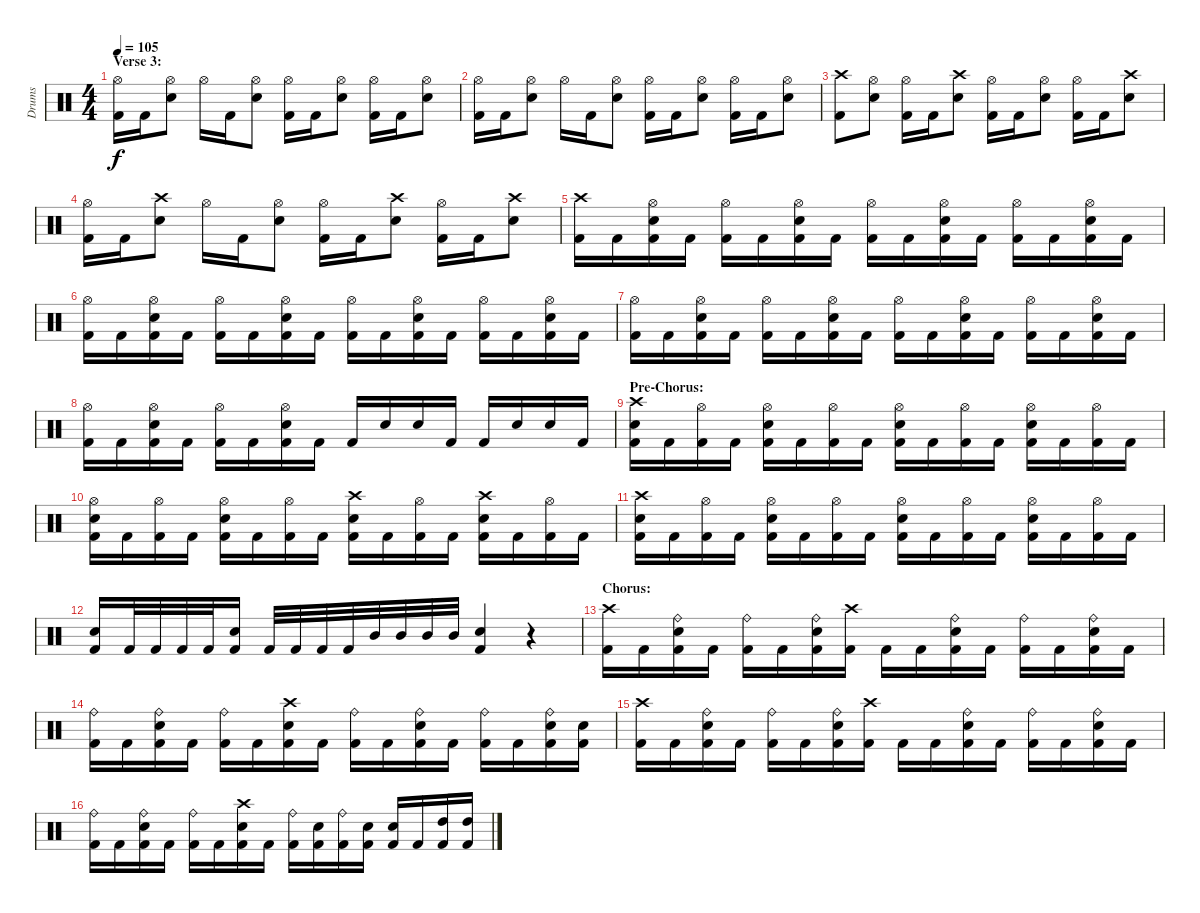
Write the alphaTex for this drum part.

\track ("Drums" "Drums") {instrument percussion}
\staff {score}
\articulation defaults
\ts (4 4)
\section ("" "Verse 3:")
\tempo 105
\clef neutral
\ks c
("Hi-Hat (open)" "Kick (hit) 2").16{dy f} "Kick (hit) 2".16 ("Hi-Hat (open)" "Electric Snare (hit)").8 "Hi-Hat (open)".16 "Kick (hit) 2".16 ("Hi-Hat (open)" "Electric Snare (hit)").8 ("Hi-Hat (open)" "Kick (hit) 2").16 "Kick (hit) 2".16 ("Hi-Hat (open)" "Electric Snare (hit)").8 ("Hi-Hat (open)" "Kick (hit) 2").16 "Kick (hit) 2".16 ("Hi-Hat (open)" "Electric Snare (hit)").8 |
("Hi-Hat (open)" "Kick (hit) 2").16 "Kick (hit) 2".16 ("Hi-Hat (open)" "Electric Snare (hit)").8 "Hi-Hat (open)".16 "Kick (hit) 2".16 ("Hi-Hat (open)" "Electric Snare (hit)").8 ("Hi-Hat (open)" "Kick (hit) 2").16 "Kick (hit) 2".16 ("Hi-Hat (open)" "Electric Snare (hit)").8 ("Hi-Hat (open)" "Kick (hit) 2").16 "Kick (hit) 2".16 ("Hi-Hat (open)" "Electric Snare (hit)").8 |
("Crash high (hit)" "Kick (hit) 2").8 ("Hi-Hat (open)" "Electric Snare (hit)").8 ("Hi-Hat (open)" "Kick (hit) 2").16 "Kick (hit) 2".16 ("Crash high (hit)" "Electric Snare (hit)").8 ("Hi-Hat (open)" "Kick (hit) 2").16 "Kick (hit) 2".16 ("Hi-Hat (open)" "Electric Snare (hit)").8 ("Hi-Hat (open)" "Kick (hit) 2").16 "Kick (hit) 2".16 ("Crash high (hit)" "Electric Snare (hit)").8 |
("Hi-Hat (open)" "Kick (hit) 2").16 "Kick (hit) 2".16 ("Crash high (hit)" "Electric Snare (hit)").8 "Hi-Hat (open)".16 "Kick (hit) 2".16 ("Hi-Hat (open)" "Electric Snare (hit)").8 ("Hi-Hat (open)" "Kick (hit) 2").16 "Kick (hit) 2".16 ("Crash high (hit)" "Electric Snare (hit)").8 ("Hi-Hat (open)" "Kick (hit) 2").16 "Kick (hit) 2".16 ("Crash high (hit)" "Electric Snare (hit)").8 |
("Crash high (hit)" "Kick (hit) 2").16 "Kick (hit) 2".16 ("Hi-Hat (open)" "Electric Snare (hit)" "Kick (hit) 2").16 "Kick (hit) 2".16 ("Hi-Hat (open)" "Kick (hit) 2").16 "Kick (hit) 2".16 ("Hi-Hat (open)" "Electric Snare (hit)" "Kick (hit) 2").16 "Kick (hit) 2".16 ("Hi-Hat (open)" "Kick (hit) 2").16 "Kick (hit) 2".16 ("Hi-Hat (open)" "Electric Snare (hit)" "Kick (hit) 2").16 "Kick (hit) 2".16 ("Hi-Hat (open)" "Kick (hit) 2").16 "Kick (hit) 2".16 ("Hi-Hat (open)" "Electric Snare (hit)" "Kick (hit) 2").16 "Kick (hit) 2".16 |
("Hi-Hat (open)" "Kick (hit) 2").16 "Kick (hit) 2".16 ("Hi-Hat (open)" "Electric Snare (hit)" "Kick (hit) 2").16 "Kick (hit) 2".16 ("Hi-Hat (open)" "Kick (hit) 2").16 "Kick (hit) 2".16 ("Hi-Hat (open)" "Electric Snare (hit)" "Kick (hit) 2").16 "Kick (hit) 2".16 ("Hi-Hat (open)" "Kick (hit) 2").16 "Kick (hit) 2".16 ("Hi-Hat (open)" "Electric Snare (hit)" "Kick (hit) 2").16 "Kick (hit) 2".16 ("Hi-Hat (open)" "Kick (hit) 2").16 "Kick (hit) 2".16 ("Hi-Hat (open)" "Electric Snare (hit)" "Kick (hit) 2").16 "Kick (hit) 2".16 |
("Hi-Hat (open)" "Kick (hit) 2").16 "Kick (hit) 2".16 ("Hi-Hat (open)" "Electric Snare (hit)" "Kick (hit) 2").16 "Kick (hit) 2".16 ("Hi-Hat (open)" "Kick (hit) 2").16 "Kick (hit) 2".16 ("Hi-Hat (open)" "Electric Snare (hit)" "Kick (hit) 2").16 "Kick (hit) 2".16 ("Hi-Hat (open)" "Kick (hit) 2").16 "Kick (hit) 2".16 ("Hi-Hat (open)" "Electric Snare (hit)" "Kick (hit) 2").16 "Kick (hit) 2".16 ("Hi-Hat (open)" "Kick (hit) 2").16 "Kick (hit) 2".16 ("Hi-Hat (open)" "Electric Snare (hit)" "Kick (hit) 2").16 "Kick (hit) 2".16 |
("Hi-Hat (open)" "Kick (hit) 2").16 "Kick (hit) 2".16 ("Hi-Hat (open)" "Electric Snare (hit)" "Kick (hit) 2").16 "Kick (hit) 2".16 ("Hi-Hat (open)" "Kick (hit) 2").16 "Kick (hit) 2".16 ("Hi-Hat (open)" "Electric Snare (hit)" "Kick (hit) 2").16 "Kick (hit) 2".16 "Kick (hit) 2".16 "Electric Snare (hit)".16 "Electric Snare (hit)".16 "Kick (hit) 2".16 "Kick (hit) 2".16 "Electric Snare (hit)".16 "Electric Snare (hit)".16 "Kick (hit) 2".16 |
\section ("" "Pre-Chorus:")
("Crash high (hit)" "Electric Snare (hit)" "Kick (hit) 2").16 "Kick (hit) 2".16 ("Hi-Hat (open)" "Kick (hit) 2").16 "Kick (hit) 2".16 ("Hi-Hat (open)" "Electric Snare (hit)" "Kick (hit) 2").16 "Kick (hit) 2".16 ("Hi-Hat (open)" "Kick (hit) 2").16 "Kick (hit) 2".16 ("Hi-Hat (open)" "Electric Snare (hit)" "Kick (hit) 2").16 "Kick (hit) 2".16 ("Hi-Hat (open)" "Kick (hit) 2").16 "Kick (hit) 2".16 ("Hi-Hat (open)" "Electric Snare (hit)" "Kick (hit) 2").16 "Kick (hit) 2".16 ("Hi-Hat (open)" "Kick (hit) 2").16 "Kick (hit) 2".16 |
("Hi-Hat (open)" "Electric Snare (hit)" "Kick (hit) 2").16 "Kick (hit) 2".16 ("Hi-Hat (open)" "Kick (hit) 2").16 "Kick (hit) 2".16 ("Hi-Hat (open)" "Electric Snare (hit)" "Kick (hit) 2").16 "Kick (hit) 2".16 ("Hi-Hat (open)" "Kick (hit) 2").16 "Kick (hit) 2".16 ("Crash high (hit)" "Electric Snare (hit)" "Kick (hit) 2").16 "Kick (hit) 2".16 ("Hi-Hat (open)" "Kick (hit) 2").16 "Kick (hit) 2".16 ("Crash high (hit)" "Electric Snare (hit)" "Kick (hit) 2").16 "Kick (hit) 2".16 ("Hi-Hat (open)" "Kick (hit) 2").16 "Kick (hit) 2".16 |
("Crash high (hit)" "Electric Snare (hit)" "Kick (hit) 2").16 "Kick (hit) 2".16 ("Hi-Hat (open)" "Kick (hit) 2").16 "Kick (hit) 2".16 ("Hi-Hat (open)" "Electric Snare (hit)" "Kick (hit) 2").16 "Kick (hit) 2".16 ("Hi-Hat (open)" "Kick (hit) 2").16 "Kick (hit) 2".16 ("Hi-Hat (open)" "Electric Snare (hit)" "Kick (hit) 2").16 "Kick (hit) 2".16 ("Hi-Hat (open)" "Kick (hit) 2").16 "Kick (hit) 2".16 ("Hi-Hat (open)" "Electric Snare (hit)" "Kick (hit) 2").16 "Kick (hit) 2".16 ("Hi-Hat (open)" "Kick (hit) 2").16 "Kick (hit) 2".16 |
("Electric Snare (hit)" "Kick (hit) 2").16 "Kick (hit) 2".32 "Kick (hit) 2".32 "Kick (hit) 2".32 "Kick (hit) 2".32 ("Electric Snare (hit)" "Kick (hit) 2").16 "Kick (hit) 2".32 "Kick (hit) 2".32 "Kick (hit) 2".32 "Kick (hit) 2".32 "Mid Tom (hit)".32 "Mid Tom (hit)".32 "Mid Tom (hit)".32 "Mid Tom (hit)".32 ("Electric Snare (hit)" "Kick (hit) 2").4 r.4 |
\section ("" "Chorus:")
("Crash high (hit)" "Kick (hit) 2").16 "Kick (hit) 2".16 ("Ride (bell)" "Electric Snare (hit)" "Kick (hit) 2").16 "Kick (hit) 2".16 ("Ride (bell)" "Kick (hit) 2").16 "Kick (hit) 2".16 ("Ride (bell)" "Electric Snare (hit)" "Kick (hit) 2").16 ("Crash high (hit)" "Kick (hit) 2").16 "Kick (hit) 2".16 "Kick (hit) 2".16 ("Ride (bell)" "Electric Snare (hit)" "Kick (hit) 2").16 "Kick (hit) 2".16 ("Ride (bell)" "Kick (hit) 2").16 "Kick (hit) 2".16 ("Ride (bell)" "Electric Snare (hit)" "Kick (hit) 2").16 "Kick (hit) 2".16 |
("Ride (bell)" "Kick (hit) 2").16 "Kick (hit) 2".16 ("Ride (bell)" "Electric Snare (hit)" "Kick (hit) 2").16 "Kick (hit) 2".16 ("Ride (bell)" "Kick (hit) 2").16 "Kick (hit) 2".16 ("Crash high (hit)" "Electric Snare (hit)" "Kick (hit) 2").16 "Kick (hit) 2".16 ("Ride (bell)" "Kick (hit) 2").16 "Kick (hit) 2".16 ("Ride (bell)" "Electric Snare (hit)" "Kick (hit) 2").16 "Kick (hit) 2".16 ("Ride (bell)" "Kick (hit) 2").16 "Kick (hit) 2".16 ("Ride (bell)" "Electric Snare (hit)" "Kick (hit) 2").16 ("Electric Snare (hit)" "Kick (hit) 2").16 |
("Crash high (hit)" "Kick (hit) 2").16 "Kick (hit) 2".16 ("Ride (bell)" "Electric Snare (hit)" "Kick (hit) 2").16 "Kick (hit) 2".16 ("Ride (bell)" "Kick (hit) 2").16 "Kick (hit) 2".16 ("Ride (bell)" "Electric Snare (hit)" "Kick (hit) 2").16 ("Crash high (hit)" "Kick (hit) 2").16 "Kick (hit) 2".16 "Kick (hit) 2".16 ("Ride (bell)" "Electric Snare (hit)" "Kick (hit) 2").16 "Kick (hit) 2".16 ("Ride (bell)" "Kick (hit) 2").16 "Kick (hit) 2".16 ("Ride (bell)" "Electric Snare (hit)" "Kick (hit) 2").16 "Kick (hit) 2".16 |
("Ride (bell)" "Kick (hit) 2").16 "Kick (hit) 2".16 ("Ride (bell)" "Electric Snare (hit)" "Kick (hit) 2").16 "Kick (hit) 2".16 ("Ride (bell)" "Kick (hit) 2").16 "Kick (hit) 2".16 ("Crash high (hit)" "Electric Snare (hit)" "Kick (hit) 2").16 "Kick (hit) 2".16 ("Ride (bell)" "Kick (hit) 2").16 ("Electric Snare (hit)" "Kick (hit) 2").16 ("Ride (bell)" "Kick (hit) 2").16 ("Electric Snare (hit)" "Kick (hit) 2").16 ("Electric Snare (hit)" "Kick (hit) 2").16 "Kick (hit) 2".16 ("High Tom (hit)" "Kick (hit) 2").16 ("High Tom (hit)" "Kick (hit) 2").16
